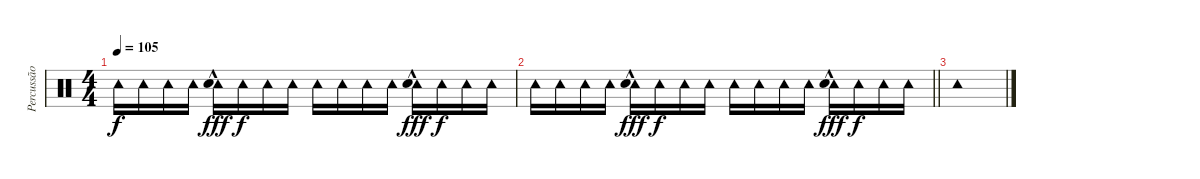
\track ("Percussão" "Percussão") {instrument percussion}
\staff {score}
\articulation defaults
\ts (4 4)
\tempo 105
\clef neutral
\ks c "Tambourine (hit)".16{dy f} "Tambourine (hit)".16 "Tambourine (hit)".16 "Tambourine (hit)".16
("Tambourine (hit)" "Hand Clap (hit)"{hac}).16{dy fff} "Tambourine (hit)".16{dy f} "Tambourine (hit)".16 "Tambourine (hit)".16 "Tambourine (hit)".16 "Tambourine (hit)".16 "Tambourine (hit)".16 "Tambourine (hit)".16 ("Tambourine (hit)" "Hand Clap (hit)"{hac}).16{dy fff} "Tambourine (hit)".16{dy f} "Tambourine (hit)".16 "Tambourine (hit)".16 |
\barLineRight lightlight "Tambourine (hit)".16 "Tambourine (hit)".16 "Tambourine (hit)".16 "Tambourine (hit)".16
("Tambourine (hit)" "Hand Clap (hit)"{hac}).16{dy fff} "Tambourine (hit)".16{dy f} "Tambourine (hit)".16 "Tambourine (hit)".16 "Tambourine (hit)".16 "Tambourine (hit)".16 "Tambourine (hit)".16 "Tambourine (hit)".16 ("Tambourine (hit)" "Hand Clap (hit)"{hac}).16{dy fff} "Tambourine (hit)".16{dy f} "Tambourine (hit)".16 "Tambourine (hit)".16 |
"Tambourine (hit)".1
